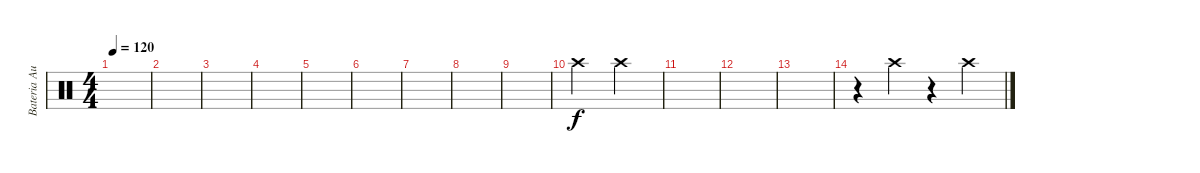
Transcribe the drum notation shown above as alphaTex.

\track ("Bateria Auxiliar" "Bateria Au") {instrument percussion}
\staff {score}
\articulation defaults
\ts (4 4)
\tempo 120
\clef neutral
\ks c
|
|
|
|
|
|
|
|
|
"Crash high (hit)".2 "Crash high (hit)".2 |
|
|
|
r.4 "Crash high (hit)".4 r.4 "Crash high (hit)".4
